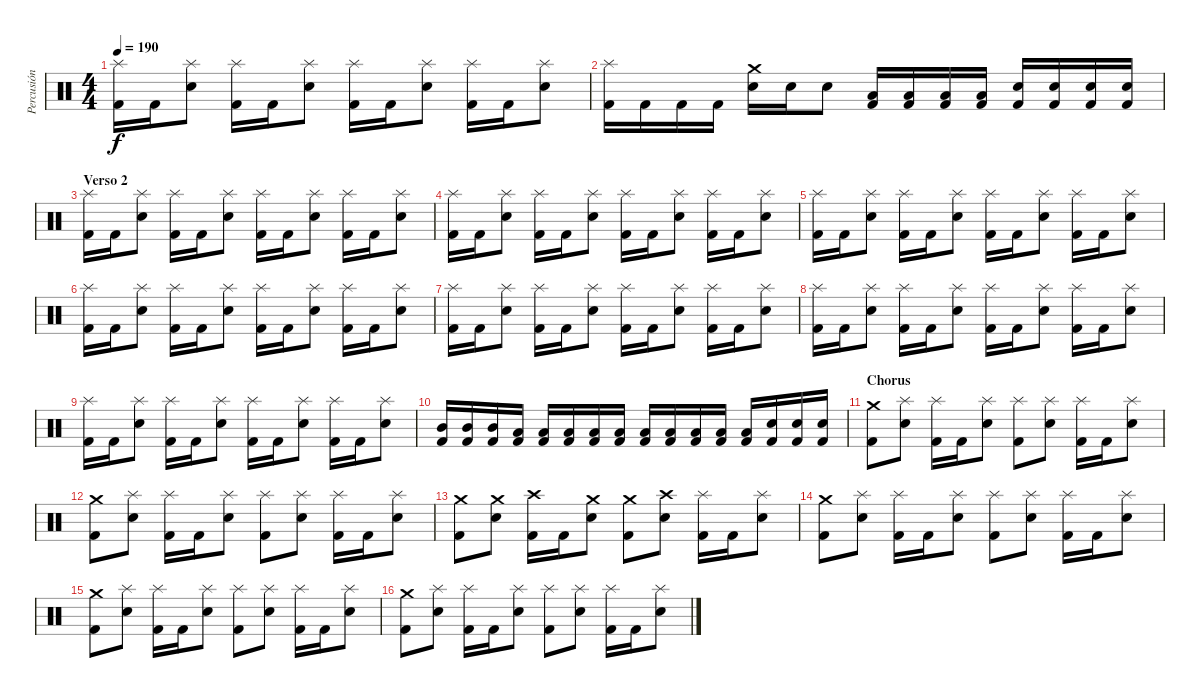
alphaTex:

\track ("Percusión" "Percusión") {instrument percussion}
\staff {score}
\articulation defaults
\ts (4 4)
\tempo 190
\clef neutral
\ks c
("Splash (hit)" "Kick (hit) 2").16{dy f} "Kick (hit) 2".16 ("Splash (hit)" "Snare (hit) 2").8 ("Splash (hit)" "Kick (hit) 2").16 "Kick (hit) 2".16 ("Splash (hit)" "Snare (hit) 2").8 ("Splash (hit)" "Kick (hit) 2").16 "Kick (hit) 2".16 ("Splash (hit)" "Snare (hit) 2").8 ("Splash (hit)" "Kick (hit) 2").16 "Kick (hit) 2".16 ("Splash (hit)" "Snare (hit) 2").8 |
("Splash (hit)" "Kick (hit) 2").16 "Kick (hit) 2".16 "Kick (hit) 2".16 "Kick (hit) 2".16 ("Crash medium (hit)" "Snare (hit) 2").16 "Snare (hit) 2".16 "Snare (hit) 2".8 ("Low Tom (hit)" "Kick (hit) 2").16 ("Low Tom (hit)" "Kick (hit) 2").16 ("Low Tom (hit)" "Kick (hit) 2").16 ("Low Tom (hit)" "Kick (hit) 2").16 ("Snare (hit) 2" "Kick (hit) 2").16 ("Snare (hit) 2" "Kick (hit) 2").16 ("Snare (hit) 2" "Kick (hit) 2").16 ("Snare (hit) 2" "Kick (hit) 2").16 |
\section ("" "Verso 2")
("Splash (hit)" "Kick (hit) 2").16 "Kick (hit) 2".16 ("Splash (hit)" "Snare (hit) 2").8 ("Splash (hit)" "Kick (hit) 2").16 "Kick (hit) 2".16 ("Splash (hit)" "Snare (hit) 2").8 ("Splash (hit)" "Kick (hit) 2").16 "Kick (hit) 2".16 ("Splash (hit)" "Snare (hit) 2").8 ("Splash (hit)" "Kick (hit) 2").16 "Kick (hit) 2".16 ("Splash (hit)" "Snare (hit) 2").8 |
("Splash (hit)" "Kick (hit) 2").16 "Kick (hit) 2".16 ("Splash (hit)" "Snare (hit) 2").8 ("Splash (hit)" "Kick (hit) 2").16 "Kick (hit) 2".16 ("Splash (hit)" "Snare (hit) 2").8 ("Splash (hit)" "Kick (hit) 2").16 "Kick (hit) 2".16 ("Splash (hit)" "Snare (hit) 2").8 ("Splash (hit)" "Kick (hit) 2").16 "Kick (hit) 2".16 ("Splash (hit)" "Snare (hit) 2").8 |
("Splash (hit)" "Kick (hit) 2").16 "Kick (hit) 2".16 ("Splash (hit)" "Snare (hit) 2").8 ("Splash (hit)" "Kick (hit) 2").16 "Kick (hit) 2".16 ("Splash (hit)" "Snare (hit) 2").8 ("Splash (hit)" "Kick (hit) 2").16 "Kick (hit) 2".16 ("Splash (hit)" "Snare (hit) 2").8 ("Splash (hit)" "Kick (hit) 2").16 "Kick (hit) 2".16 ("Splash (hit)" "Snare (hit) 2").8 |
("Splash (hit)" "Kick (hit) 2").16 "Kick (hit) 2".16 ("Splash (hit)" "Snare (hit) 2").8 ("Splash (hit)" "Kick (hit) 2").16 "Kick (hit) 2".16 ("Splash (hit)" "Snare (hit) 2").8 ("Splash (hit)" "Kick (hit) 2").16 "Kick (hit) 2".16 ("Splash (hit)" "Snare (hit) 2").8 ("Splash (hit)" "Kick (hit) 2").16 "Kick (hit) 2".16 ("Splash (hit)" "Snare (hit) 2").8 |
("Splash (hit)" "Kick (hit) 2").16 "Kick (hit) 2".16 ("Splash (hit)" "Snare (hit) 2").8 ("Splash (hit)" "Kick (hit) 2").16 "Kick (hit) 2".16 ("Splash (hit)" "Snare (hit) 2").8 ("Splash (hit)" "Kick (hit) 2").16 "Kick (hit) 2".16 ("Splash (hit)" "Snare (hit) 2").8 ("Splash (hit)" "Kick (hit) 2").16 "Kick (hit) 2".16 ("Splash (hit)" "Snare (hit) 2").8 |
("Splash (hit)" "Kick (hit) 2").16 "Kick (hit) 2".16 ("Splash (hit)" "Snare (hit) 2").8 ("Splash (hit)" "Kick (hit) 2").16 "Kick (hit) 2".16 ("Splash (hit)" "Snare (hit) 2").8 ("Splash (hit)" "Kick (hit) 2").16 "Kick (hit) 2".16 ("Splash (hit)" "Snare (hit) 2").8 ("Splash (hit)" "Kick (hit) 2").16 "Kick (hit) 2".16 ("Splash (hit)" "Snare (hit) 2").8 |
("Splash (hit)" "Kick (hit) 2").16 "Kick (hit) 2".16 ("Splash (hit)" "Snare (hit) 2").8 ("Splash (hit)" "Kick (hit) 2").16 "Kick (hit) 2".16 ("Splash (hit)" "Snare (hit) 2").8 ("Splash (hit)" "Kick (hit) 2").16 "Kick (hit) 2".16 ("Splash (hit)" "Snare (hit) 2").8 ("Splash (hit)" "Kick (hit) 2").16 "Kick (hit) 2".16 ("Splash (hit)" "Snare (hit) 2").8 |
("Mid Tom (hit)" "Kick (hit) 2").16 ("Mid Tom (hit)" "Kick (hit) 2").16 ("Mid Tom (hit)" "Kick (hit) 2").16 ("Low Tom (hit)" "Kick (hit) 2").16 ("Low Tom (hit)" "Kick (hit) 2").16 ("Low Tom (hit)" "Kick (hit) 2").16 ("Low Floor Tom (hit)" "Kick (hit) 2").16 ("Low Floor Tom (hit)" "Kick (hit) 2").16 ("Low Floor Tom (hit)" "Kick (hit) 2").16 ("Low Tom (hit)" "Kick (hit) 2").16 ("Low Tom (hit)" "Kick (hit) 2").16 ("Low Tom (hit)" "Kick (hit) 2").16 ("Low Tom (hit)" "Kick (hit) 2").16 ("Snare (hit) 2" "Kick (hit) 2").16 ("Snare (hit) 2" "Kick (hit) 2").16 ("Snare (hit) 2" "Kick (hit) 2").16 |
\section ("" "Chorus")
("Crash medium (hit)" "Kick (hit) 2").8 ("Splash (hit)" "Snare (hit) 2").8 ("Splash (hit)" "Kick (hit) 2").16 "Kick (hit) 2".16 ("Splash (hit)" "Snare (hit) 2").8 ("Splash (hit)" "Kick (hit) 2").8 ("Splash (hit)" "Snare (hit) 2").8 ("Splash (hit)" "Kick (hit) 2").16 "Kick (hit) 2".16 ("Splash (hit)" "Snare (hit) 2").8 |
("Crash medium (hit)" "Kick (hit) 2").8 ("Splash (hit)" "Snare (hit) 2").8 ("Splash (hit)" "Kick (hit) 2").16 "Kick (hit) 2".16 ("Splash (hit)" "Snare (hit) 2").8 ("Splash (hit)" "Kick (hit) 2").8 ("Splash (hit)" "Snare (hit) 2").8 ("Splash (hit)" "Kick (hit) 2").16 "Kick (hit) 2".16 ("Splash (hit)" "Snare (hit) 2").8 |
("Crash medium (hit)" "Kick (hit) 2").8 ("Crash medium (hit)" "Snare (hit) 2").8 ("Crash high (hit)" "Kick (hit) 2").16 "Kick (hit) 2".16 ("Crash medium (hit)" "Snare (hit) 2").8 ("Crash medium (hit)" "Kick (hit) 2").8 ("Crash high (hit)" "Snare (hit) 2").8 ("Splash (hit)" "Kick (hit) 2").16 "Kick (hit) 2".16 ("Splash (hit)" "Snare (hit) 2").8 |
("Crash medium (hit)" "Kick (hit) 2").8 ("Splash (hit)" "Snare (hit) 2").8 ("Splash (hit)" "Kick (hit) 2").16 "Kick (hit) 2".16 ("Splash (hit)" "Snare (hit) 2").8 ("Splash (hit)" "Kick (hit) 2").8 ("Splash (hit)" "Snare (hit) 2").8 ("Splash (hit)" "Kick (hit) 2").16 "Kick (hit) 2".16 ("Splash (hit)" "Snare (hit) 2").8 |
("Crash medium (hit)" "Kick (hit) 2").8 ("Splash (hit)" "Snare (hit) 2").8 ("Splash (hit)" "Kick (hit) 2").16 "Kick (hit) 2".16 ("Splash (hit)" "Snare (hit) 2").8 ("Splash (hit)" "Kick (hit) 2").8 ("Splash (hit)" "Snare (hit) 2").8 ("Splash (hit)" "Kick (hit) 2").16 "Kick (hit) 2".16 ("Splash (hit)" "Snare (hit) 2").8 |
("Crash medium (hit)" "Kick (hit) 2").8 ("Splash (hit)" "Snare (hit) 2").8 ("Splash (hit)" "Kick (hit) 2").16 "Kick (hit) 2".16 ("Splash (hit)" "Snare (hit) 2").8 ("Splash (hit)" "Kick (hit) 2").8 ("Splash (hit)" "Snare (hit) 2").8 ("Splash (hit)" "Kick (hit) 2").16 "Kick (hit) 2".16 ("Splash (hit)" "Snare (hit) 2").8
